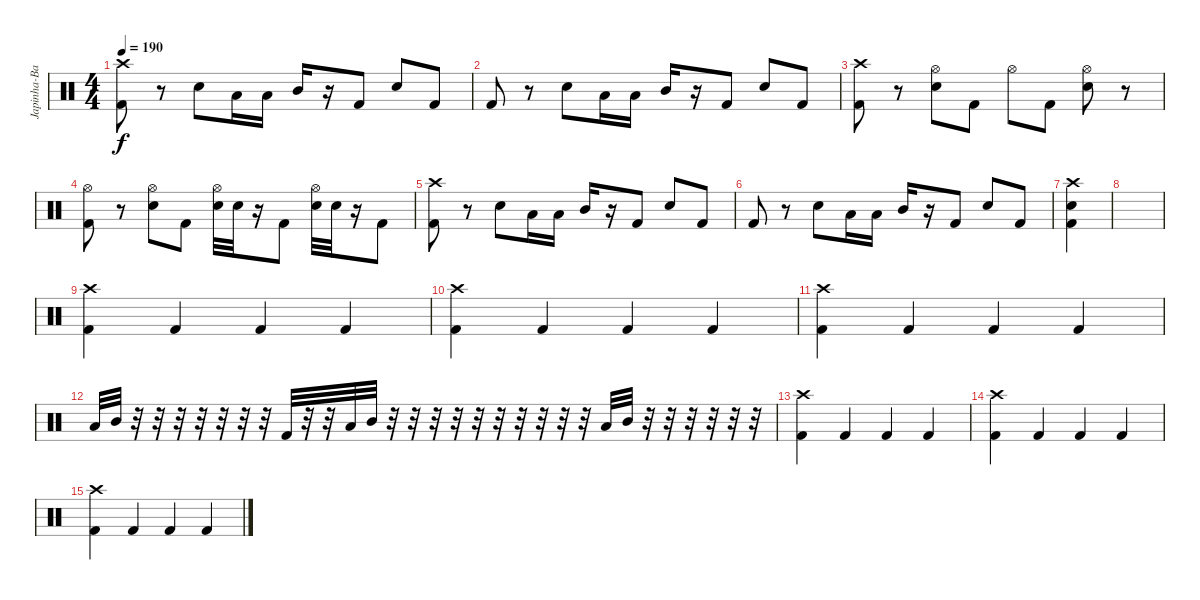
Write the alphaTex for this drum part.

\track ("Japinha-Batera" "Japinha-Ba") {instrument percussion}
\staff {score}
\articulation defaults
\ts (4 4)
\tempo 190
\clef neutral
\ks c
("Crash high (hit)" "Kick (hit) 2").8{dy f} r.8 "Electric Snare (hit)".8 "Low Tom (hit)".16 "Low Tom (hit)".16 "Mid Tom (hit)".16 r.16 "Kick (hit) 2".8 "Electric Snare (hit)".8 "Kick (hit) 2".8 |
"Kick (hit) 2".8 r.8 "Electric Snare (hit)".8 "Low Tom (hit)".16 "Low Tom (hit)".16 "Mid Tom (hit)".16 r.16 "Kick (hit) 2".8 "Electric Snare (hit)".8 "Kick (hit) 2".8 |
("Crash high (hit)" "Kick (hit) 2").8 r.8 ("Hi-Hat (open)" "Electric Snare (hit)").8 "Kick (hit) 2".8 "Hi-Hat (open)".8 "Kick (hit) 2".8 ("Hi-Hat (open)" "Electric Snare (hit)").8 r.8 |
("Hi-Hat (open)" "Kick (hit) 2").8 r.8 ("Hi-Hat (open)" "Electric Snare (hit)").8 "Kick (hit) 2".8 ("Hi-Hat (open)" "Electric Snare (hit)").32 "Electric Snare (hit)".32 r.16 "Kick (hit) 2".8 ("Hi-Hat (open)" "Electric Snare (hit)").32 "Electric Snare (hit)".32 r.16 "Kick (hit) 2".8 |
("Crash high (hit)" "Kick (hit) 2").8 r.8 "Electric Snare (hit)".8 "Low Tom (hit)".16 "Low Tom (hit)".16 "Mid Tom (hit)".16 r.16 "Kick (hit) 2".8 "Electric Snare (hit)".8 "Kick (hit) 2".8 |
"Kick (hit) 2".8 r.8 "Electric Snare (hit)".8 "Low Tom (hit)".16 "Low Tom (hit)".16 "Mid Tom (hit)".16 r.16 "Kick (hit) 2".8 "Electric Snare (hit)".8 "Kick (hit) 2".8 |
("Crash high (hit)" "Electric Snare (hit)" "Kick (hit) 2").4 |
|
("Crash high (hit)" "Kick (hit) 2").4 "Kick (hit) 2".4 "Kick (hit) 2".4 "Kick (hit) 2".4 |
("Crash high (hit)" "Kick (hit) 2").4 "Kick (hit) 2".4 "Kick (hit) 2".4 "Kick (hit) 2".4 |
("Crash high (hit)" "Kick (hit) 2").4 "Kick (hit) 2".4 "Kick (hit) 2".4 "Kick (hit) 2".4 |
"Low Tom (hit)".32 "Mid Tom (hit)".32 r.32 r.32 r.32 r.32 r.32 r.32 r.32 "Kick (hit) 2".32 r.32 r.32 "Low Tom (hit)".32 "Mid Tom (hit)".32 r.32 r.32 r.32 r.32 r.32 r.32 r.32 r.32 r.32 r.32 "Low Tom (hit)".32 "Mid Tom (hit)".32 r.32 r.32 r.32 r.32 r.32 r.32 |
("Crash high (hit)" "Kick (hit) 2").4 "Kick (hit) 2".4 "Kick (hit) 2".4 "Kick (hit) 2".4 |
("Crash high (hit)" "Kick (hit) 2").4 "Kick (hit) 2".4 "Kick (hit) 2".4 "Kick (hit) 2".4 |
("Crash high (hit)" "Kick (hit) 2").4 "Kick (hit) 2".4 "Kick (hit) 2".4 "Kick (hit) 2".4
